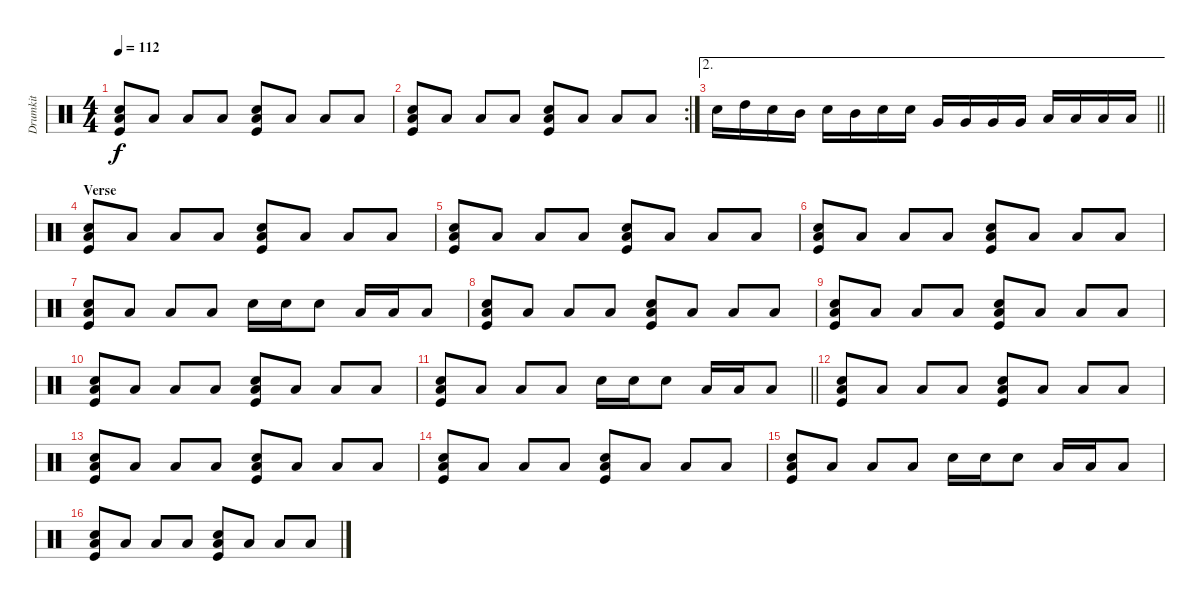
\track ("Drumkit" "Drumkit") {instrument percussion}
\staff {score}
\articulation defaults
\ts (4 4)
\tempo 112
\clef neutral
\ks c
("Snare (hit) 2" "Low Floor Tom (hit)" "Kick (hit)").8{dy f} "Low Floor Tom (hit)".8 "Low Floor Tom (hit)".8 "Low Floor Tom (hit)".8 ("Snare (hit) 2" "Low Floor Tom (hit)" "Kick (hit)").8 "Low Floor Tom (hit)".8 "Low Floor Tom (hit)".8 "Low Floor Tom (hit)".8 |
\rc 2
("Snare (hit) 2" "Low Floor Tom (hit)" "Kick (hit)").8 "Low Floor Tom (hit)".8 "Low Floor Tom (hit)".8 "Low Floor Tom (hit)".8 ("Snare (hit) 2" "Low Floor Tom (hit)" "Kick (hit)").8 "Low Floor Tom (hit)".8 "Low Floor Tom (hit)".8 "Low Floor Tom (hit)".8 |
\ae 2
\barLineRight lightlight "Snare (hit) 2".16 "High Tom (hit)".16 "Snare (hit) 2".16 "Mid Tom (hit)".16 "Snare (hit) 2".16 "Mid Tom (hit)".16 "Snare (hit) 2".16 "Snare (hit) 2".16 "Very Low Tom (hit)".16 "Very Low Tom (hit)".16 "Very Low Tom (hit)".16 "Very Low Tom (hit)".16 "Low Floor Tom (hit)".16 "Low Floor Tom (hit)".16 "Low Floor Tom (hit)".16 "Low Floor Tom (hit)".16
|
\section ("" "Verse")
("Snare (hit) 2" "Low Floor Tom (hit)" "Kick (hit)").8 "Low Floor Tom (hit)".8 "Low Floor Tom (hit)".8 "Low Floor Tom (hit)".8 ("Snare (hit) 2" "Low Floor Tom (hit)" "Kick (hit)").8 "Low Floor Tom (hit)".8 "Low Floor Tom (hit)".8 "Low Floor Tom (hit)".8 |
("Snare (hit) 2" "Low Floor Tom (hit)" "Kick (hit)").8 "Low Floor Tom (hit)".8 "Low Floor Tom (hit)".8 "Low Floor Tom (hit)".8 ("Snare (hit) 2" "Low Floor Tom (hit)" "Kick (hit)").8 "Low Floor Tom (hit)".8 "Low Floor Tom (hit)".8 "Low Floor Tom (hit)".8 |
("Snare (hit) 2" "Low Floor Tom (hit)" "Kick (hit)").8 "Low Floor Tom (hit)".8 "Low Floor Tom (hit)".8 "Low Floor Tom (hit)".8 ("Snare (hit) 2" "Low Floor Tom (hit)" "Kick (hit)").8 "Low Floor Tom (hit)".8 "Low Floor Tom (hit)".8 "Low Floor Tom (hit)".8 |
("Snare (hit) 2" "Low Floor Tom (hit)" "Kick (hit)").8 "Low Floor Tom (hit)".8 "Low Floor Tom (hit)".8 "Low Floor Tom (hit)".8 "Snare (hit) 2".16 "Snare (hit) 2".16 "Snare (hit) 2".8 "Low Tom (hit)".16 "Low Tom (hit)".16 "Low Tom (hit)".8 |
("Snare (hit) 2" "Low Floor Tom (hit)" "Kick (hit)").8 "Low Floor Tom (hit)".8 "Low Floor Tom (hit)".8 "Low Floor Tom (hit)".8 ("Snare (hit) 2" "Low Floor Tom (hit)" "Kick (hit)").8 "Low Floor Tom (hit)".8 "Low Floor Tom (hit)".8 "Low Floor Tom (hit)".8 |
("Snare (hit) 2" "Low Floor Tom (hit)" "Kick (hit)").8 "Low Floor Tom (hit)".8 "Low Floor Tom (hit)".8 "Low Floor Tom (hit)".8 ("Snare (hit) 2" "Low Floor Tom (hit)" "Kick (hit)").8 "Low Floor Tom (hit)".8 "Low Floor Tom (hit)".8 "Low Floor Tom (hit)".8 |
("Snare (hit) 2" "Low Floor Tom (hit)" "Kick (hit)").8 "Low Floor Tom (hit)".8 "Low Floor Tom (hit)".8 "Low Floor Tom (hit)".8 ("Snare (hit) 2" "Low Floor Tom (hit)" "Kick (hit)").8 "Low Floor Tom (hit)".8 "Low Floor Tom (hit)".8 "Low Floor Tom (hit)".8 |
\barLineRight lightlight
("Snare (hit) 2" "Low Floor Tom (hit)" "Kick (hit)").8 "Low Floor Tom (hit)".8 "Low Floor Tom (hit)".8 "Low Floor Tom (hit)".8 "Snare (hit) 2".16 "Snare (hit) 2".16 "Snare (hit) 2".8 "Low Tom (hit)".16 "Low Tom (hit)".16 "Low Tom (hit)".8 |
("Snare (hit) 2" "Low Floor Tom (hit)" "Kick (hit)").8 "Low Floor Tom (hit)".8 "Low Floor Tom (hit)".8 "Low Floor Tom (hit)".8 ("Snare (hit) 2" "Low Floor Tom (hit)" "Kick (hit)").8 "Low Floor Tom (hit)".8 "Low Floor Tom (hit)".8 "Low Floor Tom (hit)".8 |
("Snare (hit) 2" "Low Floor Tom (hit)" "Kick (hit)").8 "Low Floor Tom (hit)".8 "Low Floor Tom (hit)".8 "Low Floor Tom (hit)".8 ("Snare (hit) 2" "Low Floor Tom (hit)" "Kick (hit)").8 "Low Floor Tom (hit)".8 "Low Floor Tom (hit)".8 "Low Floor Tom (hit)".8 |
("Snare (hit) 2" "Low Floor Tom (hit)" "Kick (hit)").8 "Low Floor Tom (hit)".8 "Low Floor Tom (hit)".8 "Low Floor Tom (hit)".8 ("Snare (hit) 2" "Low Floor Tom (hit)" "Kick (hit)").8 "Low Floor Tom (hit)".8 "Low Floor Tom (hit)".8 "Low Floor Tom (hit)".8 |
("Snare (hit) 2" "Low Floor Tom (hit)" "Kick (hit)").8 "Low Floor Tom (hit)".8 "Low Floor Tom (hit)".8 "Low Floor Tom (hit)".8 "Snare (hit) 2".16 "Snare (hit) 2".16 "Snare (hit) 2".8 "Low Tom (hit)".16 "Low Tom (hit)".16 "Low Tom (hit)".8 |
("Snare (hit) 2" "Low Floor Tom (hit)" "Kick (hit)").8 "Low Floor Tom (hit)".8 "Low Floor Tom (hit)".8 "Low Floor Tom (hit)".8 ("Snare (hit) 2" "Low Floor Tom (hit)" "Kick (hit)").8 "Low Floor Tom (hit)".8 "Low Floor Tom (hit)".8 "Low Floor Tom (hit)".8
